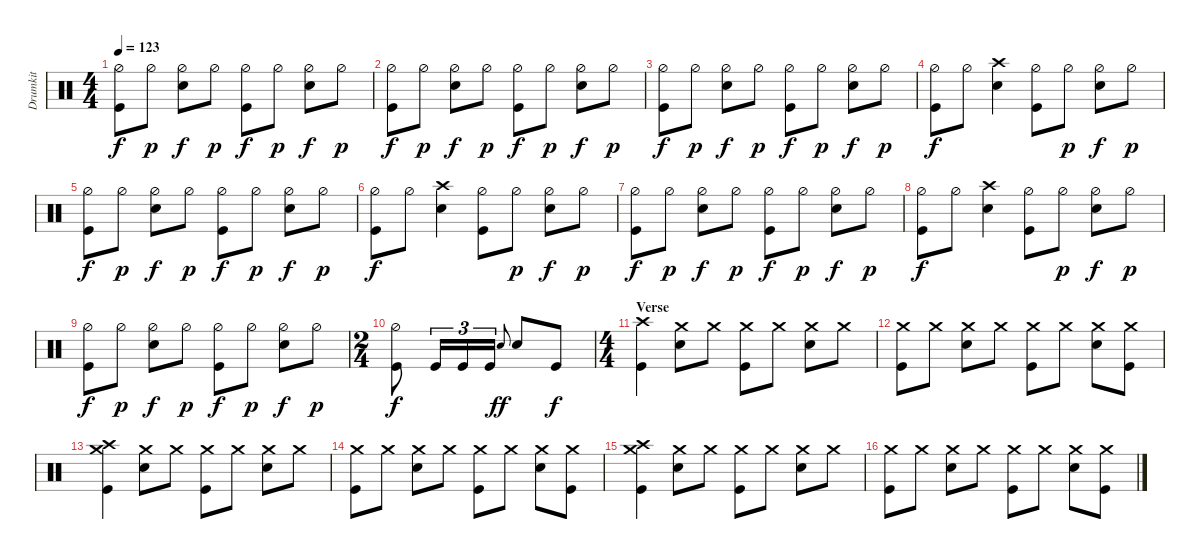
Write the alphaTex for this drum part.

\track ("Drumkit" "Drumkit") {instrument percussion}
\staff {score}
\articulation defaults
\ts (4 4)
\tempo 123
\clef neutral
\ks c
("Hi-Hat (half)" "Kick (hit)").8{dy f} "Hi-Hat (half)".8{dy p} ("Hi-Hat (half)" "Snare (hit) 2").8{dy f} "Hi-Hat (half)".8{dy p} ("Hi-Hat (half)" "Kick (hit)").8{dy f} "Hi-Hat (half)".8{dy p} ("Hi-Hat (half)" "Snare (hit) 2").8{dy f} "Hi-Hat (half)".8{dy p} |
("Hi-Hat (half)" "Kick (hit)").8{dy f} "Hi-Hat (half)".8{dy p} ("Hi-Hat (half)" "Snare (hit) 2").8{dy f} "Hi-Hat (half)".8{dy p} ("Hi-Hat (half)" "Kick (hit)").8{dy f} "Hi-Hat (half)".8{dy p} ("Hi-Hat (half)" "Snare (hit) 2").8{dy f} "Hi-Hat (half)".8{dy p} |
("Hi-Hat (half)" "Kick (hit)").8{dy f} "Hi-Hat (half)".8{dy p} ("Hi-Hat (half)" "Snare (hit) 2").8{dy f} "Hi-Hat (half)".8{dy p} ("Hi-Hat (half)" "Kick (hit)").8{dy f} "Hi-Hat (half)".8{dy p} ("Hi-Hat (half)" "Snare (hit) 2").8{dy f} "Hi-Hat (half)".8{dy p} |
("Hi-Hat (half)" "Kick (hit)").8{dy f} "Hi-Hat (half)".8 ("Snare (hit) 2" "Crash high (hit)").4 ("Hi-Hat (half)" "Kick (hit)").8 "Hi-Hat (half)".8{dy p} ("Hi-Hat (half)" "Snare (hit) 2").8{dy f} "Hi-Hat (half)".8{dy p} |
("Hi-Hat (half)" "Kick (hit)").8{dy f} "Hi-Hat (half)".8{dy p} ("Hi-Hat (half)" "Snare (hit) 2").8{dy f} "Hi-Hat (half)".8{dy p} ("Hi-Hat (half)" "Kick (hit)").8{dy f} "Hi-Hat (half)".8{dy p} ("Hi-Hat (half)" "Snare (hit) 2").8{dy f} "Hi-Hat (half)".8{dy p} |
("Hi-Hat (half)" "Kick (hit)").8{dy f} "Hi-Hat (half)".8 ("Snare (hit) 2" "Crash high (hit)").4 ("Hi-Hat (half)" "Kick (hit)").8 "Hi-Hat (half)".8{dy p} ("Hi-Hat (half)" "Snare (hit) 2").8{dy f} "Hi-Hat (half)".8{dy p} |
("Hi-Hat (half)" "Kick (hit)").8{dy f} "Hi-Hat (half)".8{dy p} ("Hi-Hat (half)" "Snare (hit) 2").8{dy f} "Hi-Hat (half)".8{dy p} ("Hi-Hat (half)" "Kick (hit)").8{dy f} "Hi-Hat (half)".8{dy p} ("Hi-Hat (half)" "Snare (hit) 2").8{dy f} "Hi-Hat (half)".8{dy p} |
("Hi-Hat (half)" "Kick (hit)").8{dy f} "Hi-Hat (half)".8 ("Snare (hit) 2" "Crash high (hit)").4 ("Hi-Hat (half)" "Kick (hit)").8 "Hi-Hat (half)".8{dy p} ("Hi-Hat (half)" "Snare (hit) 2").8{dy f} "Hi-Hat (half)".8{dy p} |
("Hi-Hat (half)" "Kick (hit)").8{dy f} "Hi-Hat (half)".8{dy p} ("Hi-Hat (half)" "Snare (hit) 2").8{dy f} "Hi-Hat (half)".8{dy p} ("Hi-Hat (half)" "Kick (hit)").8{dy f} "Hi-Hat (half)".8{dy p} ("Hi-Hat (half)" "Snare (hit) 2").8{dy f} "Hi-Hat (half)".8{dy p} |
\ts (2 4)
("Hi-Hat (half)" "Kick (hit)").8{dy f} "Kick (hit)".16{tu (3 2)} "Kick (hit)".16{tu (3 2)} "Kick (hit)".16{tu (3 2)} "Snare (hit)".8{gr onbeat dy ff} "Snare (hit) 2".8 "Kick (hit)".8{dy f} |
\ts (4 4)
\section ("" "Verse")
("Kick (hit)" "Crash high (hit)").4 ("Snare (hit) 2" "Crash medium (hit)").8 "Crash medium (hit)".8 ("Kick (hit)" "Crash medium (hit)").8 "Crash medium (hit)".8 ("Snare (hit) 2" "Crash medium (hit)").8 "Crash medium (hit)".8 |
("Kick (hit)" "Crash medium (hit)").8 "Crash medium (hit)".8 ("Snare (hit) 2" "Crash medium (hit)").8 "Crash medium (hit)".8 ("Kick (hit)" "Crash medium (hit)").8 "Crash medium (hit)".8 ("Snare (hit) 2" "Crash medium (hit)").8 ("Crash medium (hit)" "Kick (hit)").8 |
("Kick (hit)" "Crash medium (hit)" "Crash high (hit)").4 ("Snare (hit) 2" "Crash medium (hit)").8 "Crash medium (hit)".8 ("Kick (hit)" "Crash medium (hit)").8 "Crash medium (hit)".8 ("Snare (hit) 2" "Crash medium (hit)").8 "Crash medium (hit)".8 |
("Kick (hit)" "Crash medium (hit)").8 "Crash medium (hit)".8 ("Snare (hit) 2" "Crash medium (hit)").8 "Crash medium (hit)".8 ("Kick (hit)" "Crash medium (hit)").8 "Crash medium (hit)".8 ("Snare (hit) 2" "Crash medium (hit)").8 ("Crash medium (hit)" "Kick (hit)").8 |
("Kick (hit)" "Crash medium (hit)" "Crash high (hit)").4 ("Snare (hit) 2" "Crash medium (hit)").8 "Crash medium (hit)".8 ("Kick (hit)" "Crash medium (hit)").8 "Crash medium (hit)".8 ("Snare (hit) 2" "Crash medium (hit)").8 "Crash medium (hit)".8 |
("Kick (hit)" "Crash medium (hit)").8 "Crash medium (hit)".8 ("Snare (hit) 2" "Crash medium (hit)").8 "Crash medium (hit)".8 ("Kick (hit)" "Crash medium (hit)").8 "Crash medium (hit)".8 ("Snare (hit) 2" "Crash medium (hit)").8 ("Crash medium (hit)" "Kick (hit)").8
